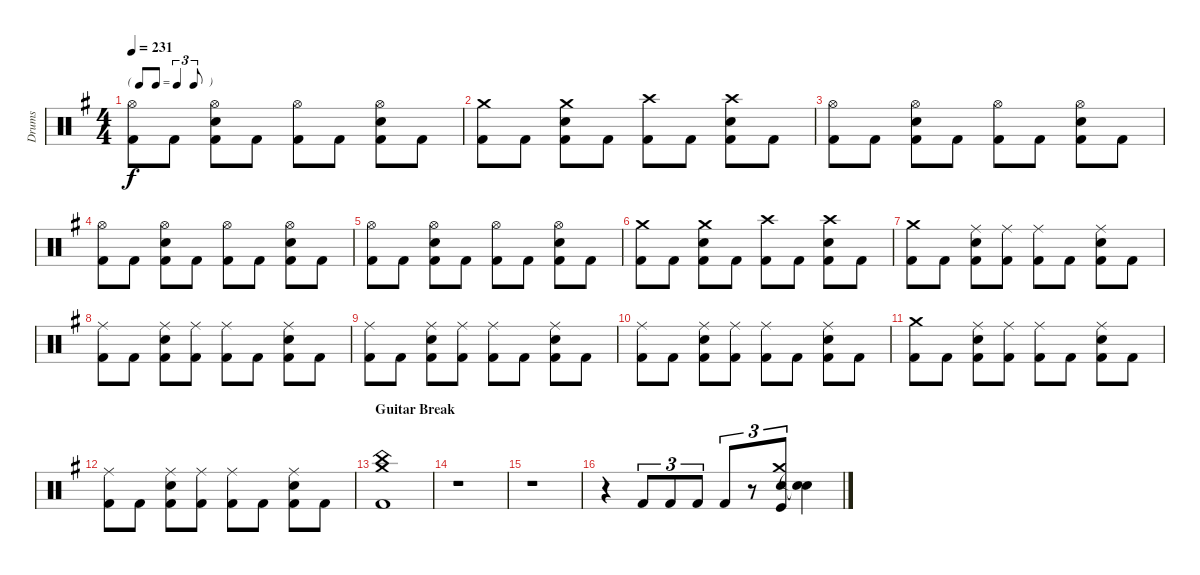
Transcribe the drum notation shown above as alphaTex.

\track ("Drums" "Drums") {instrument percussion}
\staff {score}
\articulation defaults
\ts (4 4)
\tf triplet8th
\tempo 231
\clef neutral
\ks eminor
("Hi-Hat (open)" "Kick (hit) 2").8{dy f} "Kick (hit) 2".8 ("Hi-Hat (open)" "Electric Snare (hit)" "Kick (hit) 2").8 "Kick (hit) 2".8 ("Hi-Hat (open)" "Kick (hit) 2").8 "Kick (hit) 2".8 ("Hi-Hat (open)" "Electric Snare (hit)" "Kick (hit) 2").8 "Kick (hit) 2".8 |
("Crash medium (hit)" "Kick (hit) 2").8 "Kick (hit) 2".8 ("Crash medium (hit)" "Electric Snare (hit)" "Kick (hit) 2").8 "Kick (hit) 2".8 ("Crash high (hit)" "Kick (hit) 2").8 "Kick (hit) 2".8 ("Crash high (hit)" "Electric Snare (hit)" "Kick (hit) 2").8 "Kick (hit) 2".8 |
("Hi-Hat (open)" "Kick (hit) 2").8 "Kick (hit) 2".8 ("Hi-Hat (open)" "Electric Snare (hit)" "Kick (hit) 2").8 "Kick (hit) 2".8 ("Hi-Hat (open)" "Kick (hit) 2").8 "Kick (hit) 2".8 ("Hi-Hat (open)" "Electric Snare (hit)" "Kick (hit) 2").8 "Kick (hit) 2".8 |
("Hi-Hat (open)" "Kick (hit) 2").8 "Kick (hit) 2".8 ("Hi-Hat (open)" "Electric Snare (hit)" "Kick (hit) 2").8 "Kick (hit) 2".8 ("Hi-Hat (open)" "Kick (hit) 2").8 "Kick (hit) 2".8 ("Hi-Hat (open)" "Electric Snare (hit)" "Kick (hit) 2").8 "Kick (hit) 2".8 |
("Hi-Hat (open)" "Kick (hit) 2").8 "Kick (hit) 2".8 ("Hi-Hat (open)" "Electric Snare (hit)" "Kick (hit) 2").8 "Kick (hit) 2".8 ("Hi-Hat (open)" "Kick (hit) 2").8 "Kick (hit) 2".8 ("Hi-Hat (open)" "Electric Snare (hit)" "Kick (hit) 2").8 "Kick (hit) 2".8 |
("Crash medium (hit)" "Kick (hit) 2").8 "Kick (hit) 2".8 ("Crash medium (hit)" "Electric Snare (hit)" "Kick (hit) 2").8 "Kick (hit) 2".8 ("Crash high (hit)" "Kick (hit) 2").8 "Kick (hit) 2".8 ("Crash high (hit)" "Electric Snare (hit)" "Kick (hit) 2").8 "Kick (hit) 2".8 |
("Crash medium (hit)" "Kick (hit) 2").8 "Kick (hit) 2".8 ("Ride (middle)" "Electric Snare (hit)" "Kick (hit) 2").8 ("Ride (middle)" "Kick (hit) 2").8 ("Ride (middle)" "Kick (hit) 2").8 "Kick (hit) 2".8 ("Ride (middle)" "Electric Snare (hit)" "Kick (hit) 2").8 "Kick (hit) 2".8 |
("Ride (middle)" "Kick (hit) 2").8 "Kick (hit) 2".8 ("Ride (middle)" "Electric Snare (hit)" "Kick (hit) 2").8 ("Ride (middle)" "Kick (hit) 2").8 ("Ride (middle)" "Kick (hit) 2").8 "Kick (hit) 2".8 ("Ride (middle)" "Electric Snare (hit)" "Kick (hit) 2").8 "Kick (hit) 2".8 |
("Ride (middle)" "Kick (hit) 2").8 "Kick (hit) 2".8 ("Ride (middle)" "Electric Snare (hit)" "Kick (hit) 2").8 ("Ride (middle)" "Kick (hit) 2").8 ("Ride (middle)" "Kick (hit) 2").8 "Kick (hit) 2".8 ("Ride (middle)" "Electric Snare (hit)" "Kick (hit) 2").8 "Kick (hit) 2".8 |
("Ride (middle)" "Kick (hit) 2").8 "Kick (hit) 2".8 ("Ride (middle)" "Electric Snare (hit)" "Kick (hit) 2").8 ("Ride (middle)" "Kick (hit) 2").8 ("Ride (middle)" "Kick (hit) 2").8 "Kick (hit) 2".8 ("Ride (middle)" "Electric Snare (hit)" "Kick (hit) 2").8 "Kick (hit) 2".8 |
("Crash medium (hit)" "Kick (hit) 2").8 "Kick (hit) 2".8 ("Ride (middle)" "Electric Snare (hit)" "Kick (hit) 2").8 ("Ride (middle)" "Kick (hit) 2").8 ("Ride (middle)" "Kick (hit) 2").8 "Kick (hit) 2".8 ("Ride (middle)" "Electric Snare (hit)" "Kick (hit) 2").8 "Kick (hit) 2".8 |
("Ride (middle)" "Kick (hit) 2").8 "Kick (hit) 2".8 ("Ride (middle)" "Electric Snare (hit)" "Kick (hit) 2").8 ("Ride (middle)" "Kick (hit) 2").8 ("Ride (middle)" "Kick (hit) 2").8 "Kick (hit) 2".8 ("Ride (middle)" "Electric Snare (hit)" "Kick (hit) 2").8 "Kick (hit) 2".8 |
\section ("" "Guitar Break")
("China (hit)" "Crash medium (hit)" "Kick (hit) 2").1 |
r.1 |
r.1 |
r.4 "Kick (hit) 2".8{tu (3 2)} "Kick (hit) 2".8{tu (3 2)} "Kick (hit) 2".8{tu (3 2)} "Kick (hit) 2".8{tu (3 2)} r.8{tu (3 2)} ("Crash medium (hit)" "Electric Snare (hit)" "Kick (hit)").8{tu (3 2)} ("Snare (hit)"{t} "Snare (hit)"{t}).4
